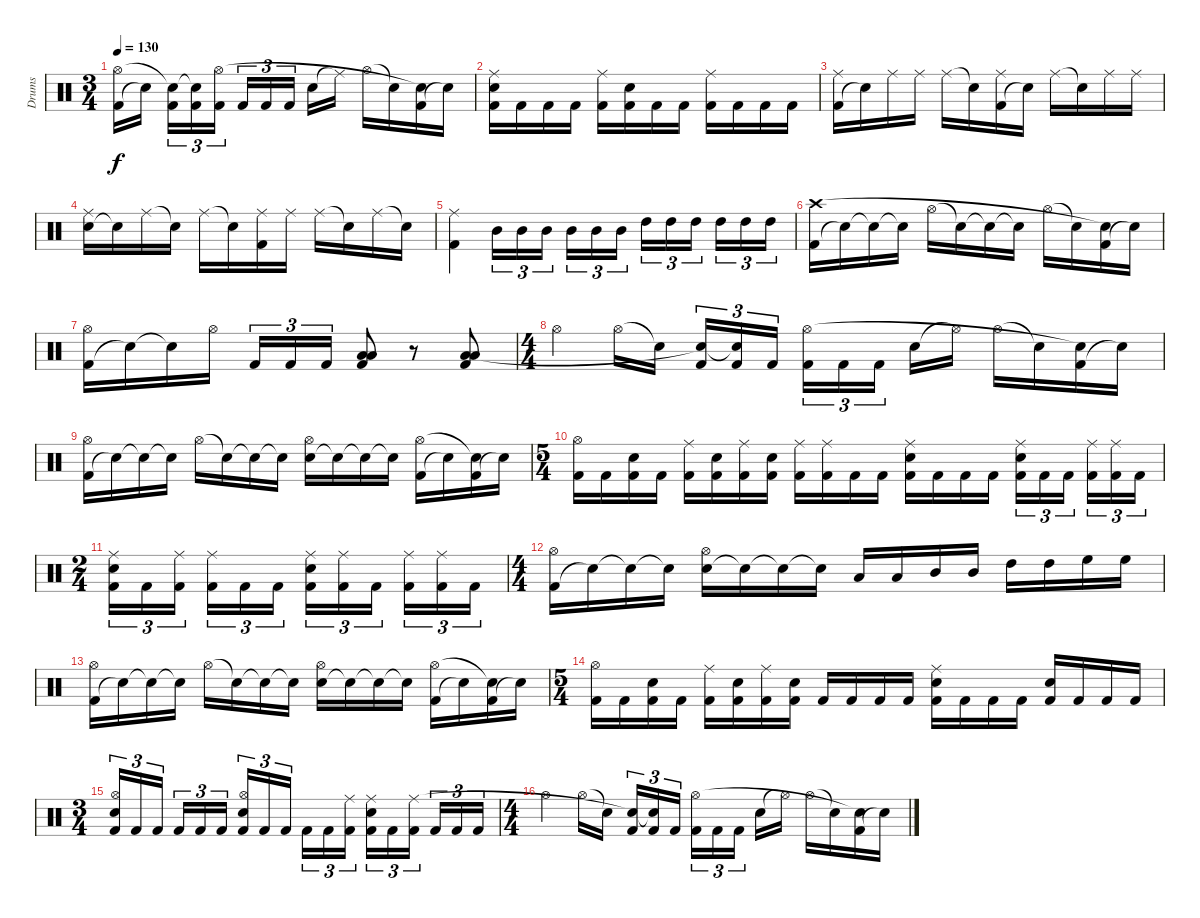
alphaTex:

\track ("Drums" "Drums") {instrument percussion}
\staff {score}
\articulation defaults
\ts (3 4)
\tempo 130
\clef neutral
\ks c
("Kick (hit) 2" "Hi-Hat (open)").16{dy f} "Snare (hit)"{t}.16 ("Kick (hit) 2" "Snare (hit)"{t}).16{tu (3 2)} ("Kick (hit) 2" "Snare (hit)"{t}).16{tu (3 2)} ("Kick (hit) 2" "Hi-Hat (open)").16{tu (3 2)} "Kick (hit) 2".16{tu (3 2)} "Kick (hit) 2".16{tu (3 2)} "Kick (hit) 2".16{tu (3 2)} "Snare (hit) 2".16 "Ride (middle)"{t}.16 "Hi-Hat (open)".16 "Snare (hit)"{t}.16 ("Kick (hit) 2" "Snare (hit)"{t}).16 "Snare (hit)"{t}.16 |
("Kick (hit) 2" "Snare (hit) 2" "Ride (middle)").16 "Kick (hit) 2".16 "Kick (hit) 2".16 "Kick (hit) 2".16 ("Kick (hit) 2" "Ride (middle)").16 ("Kick (hit) 2" "Snare (hit) 2").16 "Kick (hit) 2".16 "Kick (hit) 2".16 ("Kick (hit) 2" "Ride (middle)").16 "Kick (hit) 2".16 "Kick (hit) 2".16 "Kick (hit) 2".16 |
("Kick (hit) 2" "Ride (middle)").16 "Snare (hit)"{t}.16 "Ride (middle)".16 "Ride (middle)".16 "Ride (middle)".16 "Snare (hit)"{t}.16 ("Kick (hit) 2" "Ride (middle)").16 "Snare (hit)"{t}.16 "Ride (middle)".16 "Snare (hit)"{t}.16 "Ride (middle)".16 "Ride (middle)".16 |
("Snare (hit) 2" "Ride (middle)").16 "Snare (hit)"{t}.16 "Ride (middle)".16 "Snare (hit)"{t}.16 "Ride (middle)".16 "Snare (hit)"{t}.16 ("Kick (hit) 2" "Ride (middle)").16 "Ride (middle)".16 "Ride (middle)".16 "Snare (hit)"{t}.16 "Ride (middle)".16 "Snare (hit)"{t}.16 |
("Kick (hit) 2" "Ride (middle)").4 "Mid Tom (hit)".16{tu (3 2)} "Mid Tom (hit)".16{tu (3 2)} "Mid Tom (hit)".16{tu (3 2)} "Mid Tom (hit)".16{tu (3 2)} "Mid Tom (hit)".16{tu (3 2)} "Mid Tom (hit)".16{tu (3 2)} "High Tom (hit)".16{tu (3 2)} "High Tom (hit)".16{tu (3 2)} "High Tom (hit)".16{tu (3 2)} "High Tom (hit)".16{tu (3 2)} "High Tom (hit)".16{tu (3 2)} "High Tom (hit)".16{tu (3 2)} |
("Kick (hit) 2" "Crash high (hit)").16 "Snare (hit)"{t}.16 "Snare (hit)"{t}.16 "Snare (hit)"{t}.16 "Hi-Hat (open)".16 "Snare (hit)"{t}.16 "Snare (hit)"{t}.16 "Snare (hit)"{t}.16 "Hi-Hat (open)".16 "Snare (hit)"{t}.16 ("Kick (hit) 2" "Snare (hit)"{t}).16 "Snare (hit)"{t}.16 |
("Kick (hit) 2" "Hi-Hat (open)").16 "Snare (hit)"{t}.16 "Snare (hit)"{t}.16 "Hi-Hat (open)".16 "Kick (hit) 2".16{tu (3 2)} "Kick (hit) 2".16{tu (3 2)} "Kick (hit) 2".16{tu (3 2)} ("Kick (hit) 2" "Low Floor Tom (hit)" "Low Floor Tom (hit)").8 r.8 ("Kick (hit) 2" "Low Floor Tom (hit)" "Low Floor Tom (hit)").8 |
\ts (4 4)
"Hi-Hat (open)".4 "Hi-Hat (open)".16 "Snare (hit)"{t}.16 ("Kick (hit) 2" "Snare (hit)"{t}).16{tu (3 2)} ("Kick (hit) 2" "Snare (hit)"{t}).16{tu (3 2)} "Kick (hit) 2".16{tu (3 2)} ("Kick (hit) 2" "Hi-Hat (open)").16{tu (3 2)} "Kick (hit) 2".16{tu (3 2)} "Kick (hit) 2".16{tu (3 2)} "Snare (hit) 2".16 "Hi-Hat (open)"{t}.16 "Hi-Hat (open)".16 "Snare (hit)"{t}.16 ("Kick (hit) 2" "Snare (hit)"{t}).16 "Snare (hit)"{t}.16 |
("Kick (hit) 2" "Hi-Hat (open)").16 "Snare (hit)"{t}.16 "Snare (hit)"{t}.16 "Snare (hit)"{t}.16 "Hi-Hat (open)".16 "Snare (hit)"{t}.16 "Snare (hit)"{t}.16 "Snare (hit)"{t}.16 ("Snare (hit) 2" "Hi-Hat (open)").16 "Snare (hit)"{t}.16 "Snare (hit)"{t}.16 "Snare (hit)"{t}.16 ("Kick (hit) 2" "Hi-Hat (open)").16 "Snare (hit)"{t}.16 ("Kick (hit) 2" "Snare (hit)"{t}).16 "Snare (hit)"{t}.16 |
\ts (5 4)
("Kick (hit) 2" "Hi-Hat (open)").16 "Kick (hit) 2".16 ("Kick (hit) 2" "Snare (hit) 2").16 "Kick (hit) 2".16 ("Kick (hit) 2" "Ride (middle)").16 ("Kick (hit) 2" "Snare (hit) 2").16 ("Kick (hit) 2" "Ride (middle)").16 ("Kick (hit) 2" "Snare (hit) 2").16 ("Kick (hit) 2" "Ride (middle)").16 ("Kick (hit) 2" "Ride (middle)").16 "Kick (hit) 2".16 "Kick (hit) 2".16 ("Kick (hit) 2" "Snare (hit) 2" "Ride (middle)").16 "Kick (hit) 2".16 "Kick (hit) 2".16 "Kick (hit) 2".16 ("Kick (hit) 2" "Snare (hit) 2" "Ride (middle)").16{tu (3 2)} "Kick (hit) 2".16{tu (3 2)} "Kick (hit) 2".16{tu (3 2)} ("Kick (hit) 2" "Ride (middle)").16{tu (3 2)} ("Kick (hit) 2" "Ride (middle)").16{tu (3 2)} "Kick (hit) 2".16{tu (3 2)} |
\ts (2 4)
("Kick (hit) 2" "Snare (hit) 2" "Ride (middle)").16{tu (3 2)} "Kick (hit) 2".16{tu (3 2)} ("Kick (hit) 2" "Ride (middle)").16{tu (3 2)} ("Kick (hit) 2" "Ride (middle)").16{tu (3 2)} "Kick (hit) 2".16{tu (3 2)} "Kick (hit) 2".16{tu (3 2)} ("Kick (hit) 2" "Snare (hit) 2" "Ride (middle)").16{tu (3 2)} ("Kick (hit) 2" "Ride (middle)").16{tu (3 2)} "Kick (hit) 2".16{tu (3 2)} ("Kick (hit) 2" "Ride (middle)").16{tu (3 2)} ("Kick (hit) 2" "Ride (middle)").16{tu (3 2)} "Kick (hit) 2".16{tu (3 2)} |
\ts (4 4)
("Kick (hit) 2" "Hi-Hat (open)").16 "Snare (hit)"{t}.16 "Snare (hit)"{t}.16 "Snare (hit)"{t}.16 ("Snare (hit) 2" "Hi-Hat (open)").16 "Snare (hit)"{t}.16 "Snare (hit)"{t}.16 "Snare (hit)"{t}.16 "Low Tom (hit)".16 "Low Tom (hit)".16 "Mid Tom (hit)".16 "Mid Tom (hit)".16 "High Tom (hit)".16 "High Tom (hit)".16 "High Floor Tom (hit)".16 "High Floor Tom (hit)".16 |
("Kick (hit) 2" "Hi-Hat (open)").16 "Snare (hit)"{t}.16 "Snare (hit)"{t}.16 "Snare (hit)"{t}.16 "Hi-Hat (open)".16 "Snare (hit)"{t}.16 "Snare (hit)"{t}.16 "Snare (hit)"{t}.16 ("Snare (hit) 2" "Hi-Hat (open)").16 "Snare (hit)"{t}.16 "Snare (hit)"{t}.16 "Snare (hit)"{t}.16 ("Kick (hit) 2" "Hi-Hat (open)").16 "Snare (hit)"{t}.16 ("Kick (hit) 2" "Snare (hit)"{t}).16 "Snare (hit)"{t}.16 |
\ts (5 4)
("Kick (hit) 2" "Hi-Hat (open)").16 "Kick (hit) 2".16 ("Kick (hit) 2" "Snare (hit) 2").16 "Kick (hit) 2".16 ("Kick (hit) 2" "Ride (middle)").16 ("Kick (hit) 2" "Snare (hit) 2").16 ("Kick (hit) 2" "Ride (middle)").16 ("Kick (hit) 2" "Snare (hit) 2").16 "Kick (hit) 2".16 "Kick (hit) 2".16 "Kick (hit) 2".16 "Kick (hit) 2".16 ("Kick (hit) 2" "Snare (hit) 2" "Ride (middle)").16 "Kick (hit) 2".16 "Kick (hit) 2".16 "Kick (hit) 2".16 ("Kick (hit) 2" "Snare (hit) 2").16 "Kick (hit) 2".16 "Kick (hit) 2".16 "Kick (hit) 2".16 |
\ts (3 4)
("Kick (hit) 2" "Snare (hit) 2" "Hi-Hat (open)").16{tu (3 2)} "Kick (hit) 2".16{tu (3 2)} "Kick (hit) 2".16{tu (3 2)} "Kick (hit) 2".16{tu (3 2)} "Kick (hit) 2".16{tu (3 2)} "Kick (hit) 2".16{tu (3 2)} ("Kick (hit) 2" "Snare (hit) 2" "Hi-Hat (open)").16{tu (3 2)} "Kick (hit) 2".16{tu (3 2)} "Kick (hit) 2".16{tu (3 2)} "Kick (hit) 2".16{tu (3 2)} "Kick (hit) 2".16{tu (3 2)} ("Kick (hit) 2" "Ride (middle)").16{tu (3 2)} ("Kick (hit) 2" "Snare (hit) 2" "Ride (middle)").16{tu (3 2)} "Kick (hit) 2".16{tu (3 2)} ("Kick (hit) 2" "Ride (middle)").16{tu (3 2)} "Kick (hit) 2".16{tu (3 2)} "Kick (hit) 2".16{tu (3 2)} "Kick (hit) 2".16{tu (3 2)} |
\ts (4 4)
"Hi-Hat (open)".4 "Hi-Hat (open)".16 "Snare (hit)"{t}.16 ("Kick (hit) 2" "Snare (hit)"{t}).16{tu (3 2)} ("Kick (hit) 2" "Snare (hit)"{t}).16{tu (3 2)} "Kick (hit) 2".16{tu (3 2)} ("Kick (hit) 2" "Hi-Hat (open)").16{tu (3 2)} "Kick (hit) 2".16{tu (3 2)} "Kick (hit) 2".16{tu (3 2)} "Snare (hit) 2".16 "Hi-Hat (open)"{t}.16 "Hi-Hat (open)".16 "Snare (hit)"{t}.16 ("Kick (hit) 2" "Snare (hit)"{t}).16 "Snare (hit)"{t}.16
